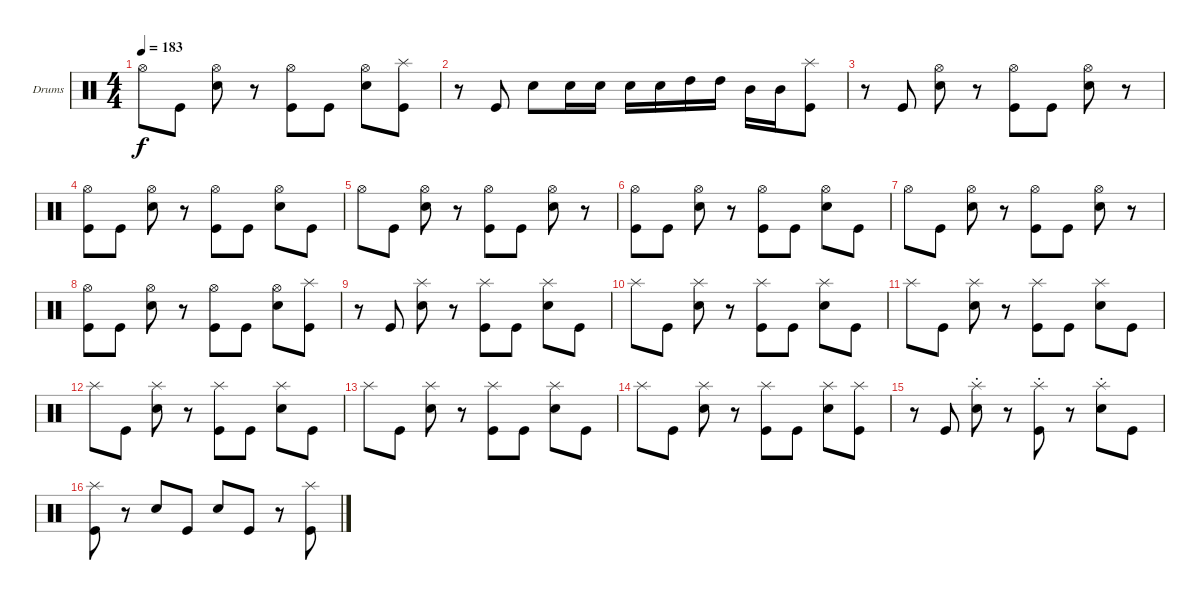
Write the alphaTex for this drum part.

\bracketExtendMode groupsimilarinstruments
\firstSystemTrackNameOrientation horizontal
\otherSystemsTrackNameOrientation horizontal
\track ("Drumkit" "Drums") {instrument percussion}
\staff {score}
\articulation defaults
\ts (4 4)
\tempo 183
\clef neutral
\ks c "Hi-Hat (open)".8{dy f} "Kick (hit)".8
("Snare (hit) 2" "Hi-Hat (open)").8 r.8 ("Kick (hit)" "Hi-Hat (open)").8 "Kick (hit)".8 ("Snare (hit) 2" "Hi-Hat (open)").8 ("Kick (hit)" "Splash (hit)").8 |
r.8 "Kick (hit)".8 "Snare (hit) 2".8 "Snare (hit) 2".16 "Snare (hit) 2".16 "Snare (hit) 2".16 "Snare (hit) 2".16 "High Tom (hit)".16 "High Tom (hit)".16 "Mid Tom (hit)".16 "Mid Tom (hit)".16 ("Kick (hit)" "Splash (hit)").8 |
r.8 "Kick (hit)".8 ("Snare (hit) 2" "Hi-Hat (open)").8 r.8 ("Kick (hit)" "Hi-Hat (open)").8 "Kick (hit)".8 ("Snare (hit) 2" "Hi-Hat (open)").8 r.8 |
("Kick (hit)" "Hi-Hat (open)").8 "Kick (hit)".8 ("Snare (hit) 2" "Hi-Hat (open)").8 r.8 ("Kick (hit)" "Hi-Hat (open)").8 "Kick (hit)".8 ("Snare (hit) 2" "Hi-Hat (open)").8 "Kick (hit)".8 |
"Hi-Hat (open)".8 "Kick (hit)".8 ("Snare (hit) 2" "Hi-Hat (open)").8 r.8 ("Kick (hit)" "Hi-Hat (open)").8 "Kick (hit)".8 ("Snare (hit) 2" "Hi-Hat (open)").8 r.8 |
("Kick (hit)" "Hi-Hat (open)").8 "Kick (hit)".8 ("Snare (hit) 2" "Hi-Hat (open)").8 r.8 ("Kick (hit)" "Hi-Hat (open)").8 "Kick (hit)".8 ("Snare (hit) 2" "Hi-Hat (open)").8 "Kick (hit)".8 |
"Hi-Hat (open)".8 "Kick (hit)".8 ("Snare (hit) 2" "Hi-Hat (open)").8 r.8 ("Kick (hit)" "Hi-Hat (open)").8 "Kick (hit)".8 ("Snare (hit) 2" "Hi-Hat (open)").8 r.8 |
("Kick (hit)" "Hi-Hat (open)").8 "Kick (hit)".8 ("Snare (hit) 2" "Hi-Hat (open)").8 r.8 ("Kick (hit)" "Hi-Hat (open)").8 "Kick (hit)".8 ("Snare (hit) 2" "Hi-Hat (open)").8 ("Kick (hit)" "Splash (hit)").8 |
r.8 "Kick (hit)".8 ("Snare (hit) 2" "Splash (hit)").8 r.8 ("Kick (hit)" "Splash (hit)").8 "Kick (hit)".8 ("Snare (hit) 2" "Splash (hit)").8 "Kick (hit)".8 |
"Splash (hit)".8 "Kick (hit)".8 ("Snare (hit) 2" "Splash (hit)").8 r.8 ("Kick (hit)" "Splash (hit)").8 "Kick (hit)".8 ("Snare (hit) 2" "Splash (hit)").8 "Kick (hit)".8 |
"Splash (hit)".8 "Kick (hit)".8 ("Snare (hit) 2" "Splash (hit)").8 r.8 ("Kick (hit)" "Splash (hit)").8 "Kick (hit)".8 ("Snare (hit) 2" "Splash (hit)").8 "Kick (hit)".8 |
"Splash (hit)".8 "Kick (hit)".8 ("Snare (hit) 2" "Splash (hit)").8 r.8 ("Kick (hit)" "Splash (hit)").8 "Kick (hit)".8 ("Snare (hit) 2" "Splash (hit)").8 "Kick (hit)".8 |
\scale
0.361277 "Splash (hit)".8 "Kick (hit)".8 ("Snare (hit) 2" "Splash (hit)").8 r.8 ("Kick (hit)" "Splash (hit)").8 "Kick (hit)".8 ("Snare (hit) 2" "Splash (hit)").8 "Kick (hit)".8 |
\scale
0.267805 "Splash (hit)".8 "Kick (hit)".8 ("Snare (hit) 2" "Splash (hit)").8 r.8 ("Kick (hit)" "Splash (hit)").8 "Kick (hit)".8 ("Snare (hit) 2" "Splash (hit)").8 ("Kick (hit)" "Splash (hit)").8 |
\scale
0.370459 r.8 "Kick (hit)".8 ("Snare (hit) 2" "Splash (hit)"{st}).8 r.8 ("Kick (hit)" "Splash (hit)"{st}).8 r.8 ("Snare (hit) 2" "Splash (hit)"{st}).8 "Kick (hit)".8 |
("Kick (hit)" "Splash (hit)").8 r.8 "Snare (hit) 2".8 "Kick (hit)".8 "Snare (hit) 2".8 "Kick (hit)".8 r.8 ("Kick (hit)" "Splash (hit)").8
